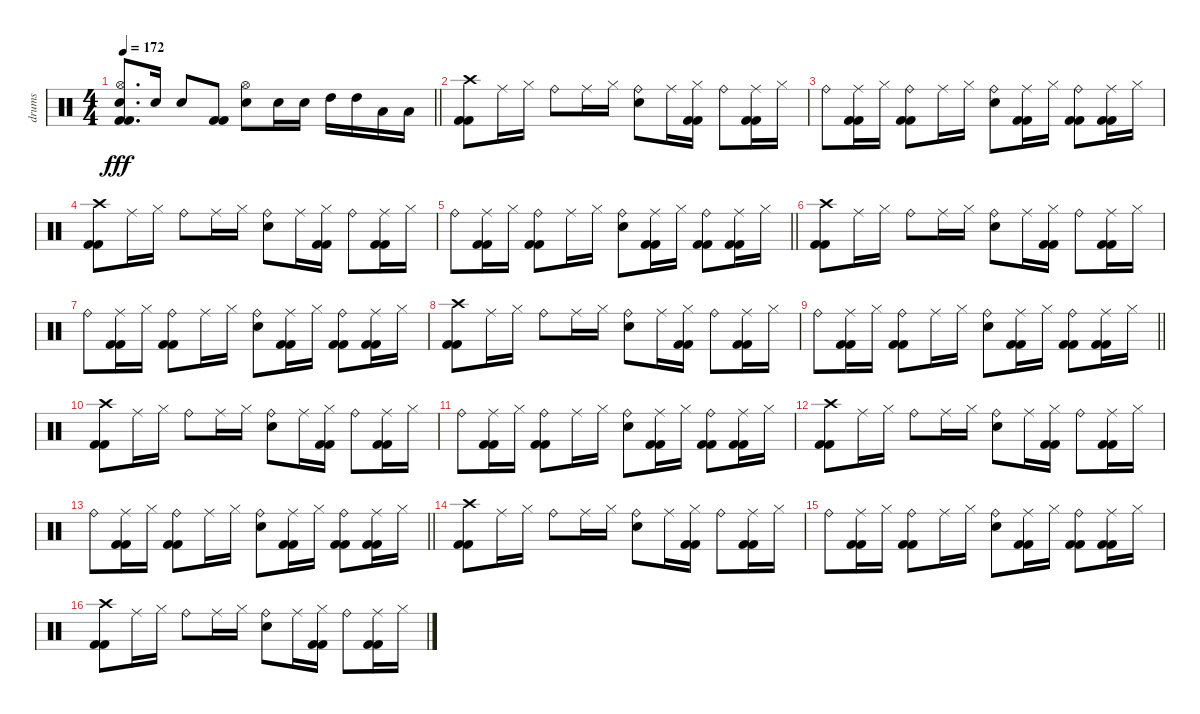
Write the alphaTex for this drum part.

\track ("drums" "drums") {instrument percussion}
\staff {score}
\articulation defaults
\ts (4 4)
\tempo 172
\clef neutral
\barLineRight lightlight
\ks c
("Kick (hit) 2" "Kick (hit) 2" "Hi-Hat (open)" "Electric Snare (hit)").8{d dy fff} "Electric Snare (hit)".16 "Electric Snare (hit)".8 ("Kick (hit) 2" "Kick (hit) 2").8 ("Electric Snare (hit)" "Hi-Hat (open)").8 "Electric Snare (hit)".16 "Electric Snare (hit)".16 "High Tom (hit)".16 "High Tom (hit)".16 "Low Floor Tom (hit)".16 "Low Floor Tom (hit)".16 |
("Kick (hit) 2" "Kick (hit) 2" "Crash high (hit)").8 "Ride (middle)".16 "Hi-Hat (closed)".16 "Ride (bell)".8 "Ride (middle)".16 "Hi-Hat (closed)".16 ("Electric Snare (hit)" "Ride (bell)").8 "Ride (middle)".16 ("Kick (hit) 2" "Kick (hit) 2" "Hi-Hat (closed)").16 "Ride (bell)".8 ("Kick (hit) 2" "Kick (hit) 2" "Ride (middle)").16 "Hi-Hat (closed)".16 |
"Ride (bell)".8 ("Kick (hit) 2" "Kick (hit) 2" "Ride (middle)").16 "Hi-Hat (closed)".16 ("Kick (hit) 2" "Kick (hit) 2" "Ride (bell)").8 "Ride (middle)".16 "Hi-Hat (closed)".16 ("Electric Snare (hit)" "Ride (bell)").8 ("Kick (hit) 2" "Kick (hit) 2" "Ride (middle)").16 "Hi-Hat (closed)".16 ("Kick (hit) 2" "Kick (hit) 2" "Ride (bell)").8 ("Kick (hit) 2" "Kick (hit) 2" "Ride (middle)").16 "Hi-Hat (closed)".16 |
("Kick (hit) 2" "Kick (hit) 2" "Crash high (hit)").8 "Ride (middle)".16 "Hi-Hat (closed)".16 "Ride (bell)".8 "Ride (middle)".16 "Hi-Hat (closed)".16 ("Electric Snare (hit)" "Ride (bell)").8 "Ride (middle)".16 ("Kick (hit) 2" "Kick (hit) 2" "Hi-Hat (closed)").16 "Ride (bell)".8 ("Kick (hit) 2" "Kick (hit) 2" "Ride (middle)").16 "Hi-Hat (closed)".16 |
\barLineRight lightlight "Ride (bell)".8
("Kick (hit) 2" "Kick (hit) 2" "Ride (middle)").16 "Hi-Hat (closed)".16 ("Kick (hit) 2" "Kick (hit) 2" "Ride (bell)").8 "Ride (middle)".16 "Hi-Hat (closed)".16 ("Electric Snare (hit)" "Ride (bell)").8 ("Kick (hit) 2" "Kick (hit) 2" "Ride (middle)").16 "Hi-Hat (closed)".16 ("Kick (hit) 2" "Kick (hit) 2" "Ride (bell)").8 ("Kick (hit) 2" "Kick (hit) 2" "Ride (middle)").16 "Hi-Hat (closed)".16 |
("Kick (hit) 2" "Kick (hit) 2" "Crash high (hit)").8 "Ride (middle)".16 "Hi-Hat (closed)".16 "Ride (bell)".8 "Ride (middle)".16 "Hi-Hat (closed)".16 ("Electric Snare (hit)" "Ride (bell)").8 "Ride (middle)".16 ("Kick (hit) 2" "Kick (hit) 2" "Hi-Hat (closed)").16 "Ride (bell)".8 ("Kick (hit) 2" "Kick (hit) 2" "Ride (middle)").16 "Hi-Hat (closed)".16 |
"Ride (bell)".8 ("Kick (hit) 2" "Kick (hit) 2" "Ride (middle)").16 "Hi-Hat (closed)".16 ("Kick (hit) 2" "Kick (hit) 2" "Ride (bell)").8 "Ride (middle)".16 "Hi-Hat (closed)".16 ("Electric Snare (hit)" "Ride (bell)").8 ("Kick (hit) 2" "Kick (hit) 2" "Ride (middle)").16 "Hi-Hat (closed)".16 ("Kick (hit) 2" "Kick (hit) 2" "Ride (bell)").8 ("Kick (hit) 2" "Kick (hit) 2" "Ride (middle)").16 "Hi-Hat (closed)".16 |
("Kick (hit) 2" "Kick (hit) 2" "Crash high (hit)").8 "Ride (middle)".16 "Hi-Hat (closed)".16 "Ride (bell)".8 "Ride (middle)".16 "Hi-Hat (closed)".16 ("Electric Snare (hit)" "Ride (bell)").8 "Ride (middle)".16 ("Kick (hit) 2" "Kick (hit) 2" "Hi-Hat (closed)").16 "Ride (bell)".8 ("Kick (hit) 2" "Kick (hit) 2" "Ride (middle)").16 "Hi-Hat (closed)".16 |
\barLineRight lightlight "Ride (bell)".8
("Kick (hit) 2" "Kick (hit) 2" "Ride (middle)").16 "Hi-Hat (closed)".16 ("Kick (hit) 2" "Kick (hit) 2" "Ride (bell)").8 "Ride (middle)".16 "Hi-Hat (closed)".16 ("Electric Snare (hit)" "Ride (bell)").8 ("Kick (hit) 2" "Kick (hit) 2" "Ride (middle)").16 "Hi-Hat (closed)".16 ("Kick (hit) 2" "Kick (hit) 2" "Ride (bell)").8 ("Kick (hit) 2" "Kick (hit) 2" "Ride (middle)").16 "Hi-Hat (closed)".16 |
("Kick (hit) 2" "Kick (hit) 2" "Crash high (hit)").8 "Ride (middle)".16 "Hi-Hat (closed)".16 "Ride (bell)".8 "Ride (middle)".16 "Hi-Hat (closed)".16 ("Electric Snare (hit)" "Ride (bell)").8 "Ride (middle)".16 ("Kick (hit) 2" "Kick (hit) 2" "Hi-Hat (closed)").16 "Ride (bell)".8 ("Kick (hit) 2" "Kick (hit) 2" "Ride (middle)").16 "Hi-Hat (closed)".16 |
"Ride (bell)".8 ("Kick (hit) 2" "Kick (hit) 2" "Ride (middle)").16 "Hi-Hat (closed)".16 ("Kick (hit) 2" "Kick (hit) 2" "Ride (bell)").8 "Ride (middle)".16 "Hi-Hat (closed)".16 ("Electric Snare (hit)" "Ride (bell)").8 ("Kick (hit) 2" "Kick (hit) 2" "Ride (middle)").16 "Hi-Hat (closed)".16 ("Kick (hit) 2" "Kick (hit) 2" "Ride (bell)").8 ("Kick (hit) 2" "Kick (hit) 2" "Ride (middle)").16 "Hi-Hat (closed)".16 |
("Kick (hit) 2" "Kick (hit) 2" "Crash high (hit)").8 "Ride (middle)".16 "Hi-Hat (closed)".16 "Ride (bell)".8 "Ride (middle)".16 "Hi-Hat (closed)".16 ("Electric Snare (hit)" "Ride (bell)").8 "Ride (middle)".16 ("Kick (hit) 2" "Kick (hit) 2" "Hi-Hat (closed)").16 "Ride (bell)".8 ("Kick (hit) 2" "Kick (hit) 2" "Ride (middle)").16 "Hi-Hat (closed)".16 |
\barLineRight lightlight "Ride (bell)".8
("Kick (hit) 2" "Kick (hit) 2" "Ride (middle)").16 "Hi-Hat (closed)".16 ("Kick (hit) 2" "Kick (hit) 2" "Ride (bell)").8 "Ride (middle)".16 "Hi-Hat (closed)".16 ("Electric Snare (hit)" "Ride (bell)").8 ("Kick (hit) 2" "Kick (hit) 2" "Ride (middle)").16 "Hi-Hat (closed)".16 ("Kick (hit) 2" "Kick (hit) 2" "Ride (bell)").8 ("Kick (hit) 2" "Kick (hit) 2" "Ride (middle)").16 "Hi-Hat (closed)".16 |
("Kick (hit) 2" "Kick (hit) 2" "Crash high (hit)").8 "Ride (middle)".16 "Hi-Hat (closed)".16 "Ride (bell)".8 "Ride (middle)".16 "Hi-Hat (closed)".16 ("Electric Snare (hit)" "Ride (bell)").8 "Ride (middle)".16 ("Kick (hit) 2" "Kick (hit) 2" "Hi-Hat (closed)").16 "Ride (bell)".8 ("Kick (hit) 2" "Kick (hit) 2" "Ride (middle)").16 "Hi-Hat (closed)".16 |
"Ride (bell)".8 ("Kick (hit) 2" "Kick (hit) 2" "Ride (middle)").16 "Hi-Hat (closed)".16 ("Kick (hit) 2" "Kick (hit) 2" "Ride (bell)").8 "Ride (middle)".16 "Hi-Hat (closed)".16 ("Electric Snare (hit)" "Ride (bell)").8 ("Kick (hit) 2" "Kick (hit) 2" "Ride (middle)").16 "Hi-Hat (closed)".16 ("Kick (hit) 2" "Kick (hit) 2" "Ride (bell)").8 ("Kick (hit) 2" "Kick (hit) 2" "Ride (middle)").16 "Hi-Hat (closed)".16 |
("Kick (hit) 2" "Kick (hit) 2" "Crash high (hit)").8 "Ride (middle)".16 "Hi-Hat (closed)".16 "Ride (bell)".8 "Ride (middle)".16 "Hi-Hat (closed)".16 ("Electric Snare (hit)" "Ride (bell)").8 "Ride (middle)".16 ("Kick (hit) 2" "Kick (hit) 2" "Hi-Hat (closed)").16 "Ride (bell)".8 ("Kick (hit) 2" "Kick (hit) 2" "Ride (middle)").16 "Hi-Hat (closed)".16
